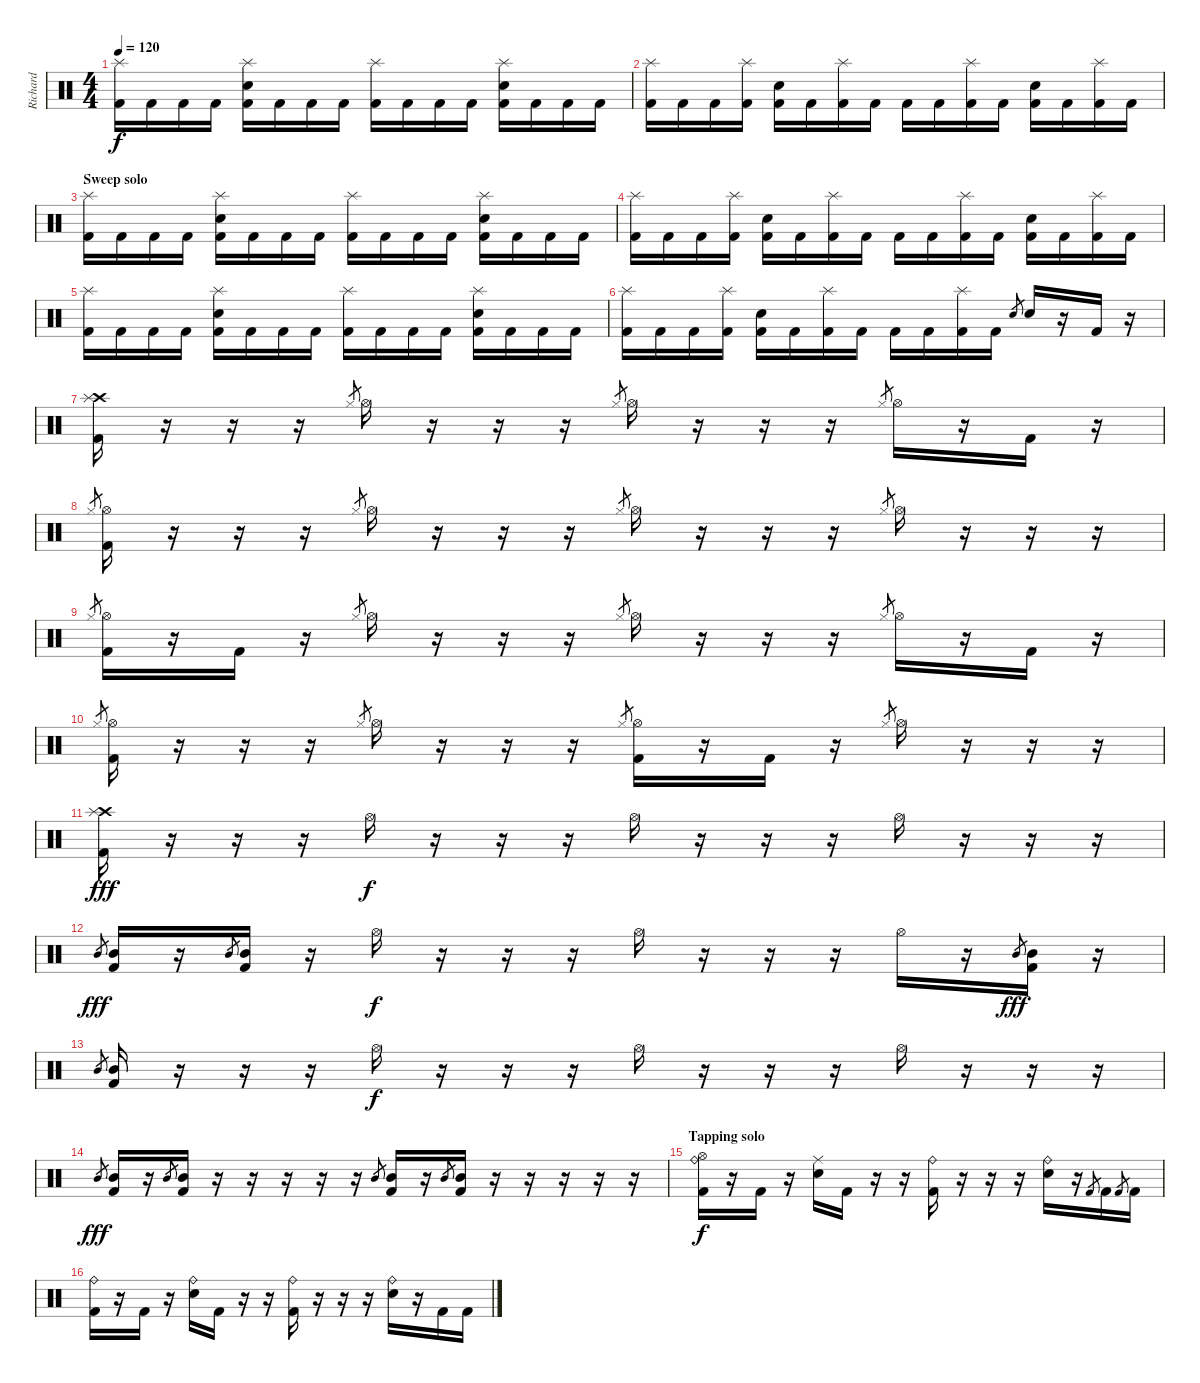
\track ("Richard " "Richard ") {instrument percussion}
\staff {score}
\articulation defaults
\ts (4 4)
\tempo 120
\clef neutral
\ks c
("Splash (hit)" "Kick (hit) 2").16{dy f} "Kick (hit) 2".16 "Kick (hit) 2".16 "Kick (hit) 2".16 ("Splash (hit)" "Snare (hit) 2" "Kick (hit) 2").16 "Kick (hit) 2".16 "Kick (hit) 2".16 "Kick (hit) 2".16 ("Splash (hit)" "Kick (hit) 2").16 "Kick (hit) 2".16 "Kick (hit) 2".16 "Kick (hit) 2".16 ("Splash (hit)" "Snare (hit) 2" "Kick (hit) 2").16 "Kick (hit) 2".16 "Kick (hit) 2".16 "Kick (hit) 2".16 |
("Splash (hit)" "Kick (hit) 2").16 "Kick (hit) 2".16 "Kick (hit) 2".16 ("Splash (hit)" "Kick (hit) 2").16 ("Snare (hit) 2" "Kick (hit) 2").16 "Kick (hit) 2".16 ("Splash (hit)" "Kick (hit) 2").16 "Kick (hit) 2".16 "Kick (hit) 2".16 "Kick (hit) 2".16 ("Splash (hit)" "Kick (hit) 2").16 "Kick (hit) 2".16 ("Snare (hit) 2" "Kick (hit) 2").16 "Kick (hit) 2".16 ("Splash (hit)" "Kick (hit) 2").16 "Kick (hit) 2".16 |
\section ("" "Sweep solo")
("Splash (hit)" "Kick (hit) 2").16 "Kick (hit) 2".16 "Kick (hit) 2".16 "Kick (hit) 2".16 ("Splash (hit)" "Snare (hit) 2" "Kick (hit) 2").16 "Kick (hit) 2".16 "Kick (hit) 2".16 "Kick (hit) 2".16 ("Splash (hit)" "Kick (hit) 2").16 "Kick (hit) 2".16 "Kick (hit) 2".16 "Kick (hit) 2".16 ("Splash (hit)" "Snare (hit) 2" "Kick (hit) 2").16 "Kick (hit) 2".16 "Kick (hit) 2".16 "Kick (hit) 2".16 |
("Splash (hit)" "Kick (hit) 2").16 "Kick (hit) 2".16 "Kick (hit) 2".16 ("Splash (hit)" "Kick (hit) 2").16 ("Snare (hit) 2" "Kick (hit) 2").16 "Kick (hit) 2".16 ("Splash (hit)" "Kick (hit) 2").16 "Kick (hit) 2".16 "Kick (hit) 2".16 "Kick (hit) 2".16 ("Splash (hit)" "Kick (hit) 2").16 "Kick (hit) 2".16 ("Snare (hit) 2" "Kick (hit) 2").16 "Kick (hit) 2".16 ("Splash (hit)" "Kick (hit) 2").16 "Kick (hit) 2".16 |
("Splash (hit)" "Kick (hit) 2").16 "Kick (hit) 2".16 "Kick (hit) 2".16 "Kick (hit) 2".16 ("Splash (hit)" "Snare (hit) 2" "Kick (hit) 2").16 "Kick (hit) 2".16 "Kick (hit) 2".16 "Kick (hit) 2".16 ("Splash (hit)" "Kick (hit) 2").16 "Kick (hit) 2".16 "Kick (hit) 2".16 "Kick (hit) 2".16 ("Splash (hit)" "Snare (hit) 2" "Kick (hit) 2").16 "Kick (hit) 2".16 "Kick (hit) 2".16 "Kick (hit) 2".16 |
("Splash (hit)" "Kick (hit) 2").16 "Kick (hit) 2".16 "Kick (hit) 2".16 ("Splash (hit)" "Kick (hit) 2").16 ("Snare (hit) 2" "Kick (hit) 2").16 "Kick (hit) 2".16 ("Splash (hit)" "Kick (hit) 2").16 "Kick (hit) 2".16 "Kick (hit) 2".16 "Kick (hit) 2".16 ("Splash (hit)" "Kick (hit) 2").16 "Kick (hit) 2".16 "Snare (hit) 2".8{gr} "Snare (hit) 2".16 r.16 "Kick (hit) 2".16 r.16 |
("Crash high (hit)" "Splash (hit)" "Kick (hit) 2").16 r.16 r.16 r.16 "Hi-Hat (closed)".8{gr} "Hi-Hat (open)".16 r.16 r.16 r.16 "Hi-Hat (closed)".8{gr} "Hi-Hat (open)".16 r.16 r.16 r.16 "Hi-Hat (closed)".8{gr} "Hi-Hat (open)".16 r.16 "Kick (hit) 2".16 r.16 |
"Hi-Hat (closed)".8{gr} ("Hi-Hat (open)" "Kick (hit) 2").16 r.16 r.16 r.16 "Hi-Hat (closed)".8{gr} "Hi-Hat (open)".16 r.16 r.16 r.16 "Hi-Hat (closed)".8{gr} "Hi-Hat (open)".16 r.16 r.16 r.16 "Hi-Hat (closed)".8{gr} "Hi-Hat (open)".16 r.16 r.16 r.16 |
"Hi-Hat (closed)".8{gr} ("Hi-Hat (open)" "Kick (hit) 2").16 r.16 "Kick (hit) 2".16 r.16 "Hi-Hat (closed)".8{gr} "Hi-Hat (open)".16 r.16 r.16 r.16 "Hi-Hat (closed)".8{gr} "Hi-Hat (open)".16 r.16 r.16 r.16 "Hi-Hat (closed)".8{gr} "Hi-Hat (open)".16 r.16 "Kick (hit) 2".16 r.16 |
"Hi-Hat (closed)".8{gr} ("Hi-Hat (open)" "Kick (hit) 2").16 r.16 r.16 r.16 "Hi-Hat (closed)".8{gr} "Hi-Hat (open)".16 r.16 r.16 r.16 "Hi-Hat (closed)".8{gr} ("Hi-Hat (open)" "Kick (hit) 2").16 r.16 "Kick (hit) 2".16 r.16 "Hi-Hat (closed)".8{gr} "Hi-Hat (open)".16 r.16 r.16 r.16 |
("Crash high (hit)" "Splash (hit)" "Kick (hit) 2").16{dy fff} r.16 r.16 r.16 "Hi-Hat (open)".16{dy f} r.16 r.16 r.16 "Hi-Hat (open)".16 r.16 r.16 r.16 "Hi-Hat (open)".16 r.16 r.16 r.16 |
"Mid Tom (hit)".8{gr dy fff} ("Kick (hit) 2" "Mid Tom (hit)").16 r.16 "Mid Tom (hit)".8{gr} ("Kick (hit) 2" "Mid Tom (hit)").16 r.16 "Hi-Hat (open)".16{dy f} r.16 r.16 r.16 "Hi-Hat (open)".16 r.16 r.16 r.16 "Hi-Hat (open)".16 r.16 "Mid Tom (hit)".8{gr dy fff} ("Kick (hit) 2" "Mid Tom (hit)").16 r.16 |
"Mid Tom (hit)".8{gr} ("Kick (hit) 2" "Mid Tom (hit)").16 r.16 r.16 r.16 "Hi-Hat (open)".16{dy f} r.16 r.16 r.16 "Hi-Hat (open)".16 r.16 r.16 r.16 "Hi-Hat (open)".16 r.16 r.16 r.16 |
"Mid Tom (hit)".8{gr dy fff} ("Kick (hit) 2" "Mid Tom (hit)").16 r.16 "Mid Tom (hit)".8{gr} ("Kick (hit) 2" "Mid Tom (hit)").16 r.16 r.16 r.16 r.16 r.16 "Mid Tom (hit)".8{gr} ("Kick (hit) 2" "Mid Tom (hit)").16 r.16 "Mid Tom (hit)".8{gr} ("Kick (hit) 2" "Mid Tom (hit)").16 r.16 r.16 r.16 r.16 r.16 |
\section ("" "Tapping solo")
("Hi-Hat (open)" "Ride (bell)" "Kick (hit) 2").16{dy f} r.16 "Kick (hit) 2".16 r.16 ("Ride (middle)" "Snare (hit) 2").16 "Kick (hit) 2".16 r.16 r.16 ("Ride (bell)" "Kick (hit) 2").16 r.16 r.16 r.16 ("Ride (bell)" "Snare (hit) 2").16 r.16 "Kick (hit) 2".8{gr} "Kick (hit) 2".16 "Kick (hit) 2".8{gr} "Kick (hit) 2".16 |
("Ride (bell)" "Kick (hit) 2").16 r.16 "Kick (hit) 2".16 r.16 ("Ride (bell)" "Snare (hit) 2").16 "Kick (hit) 2".16 r.16 r.16 ("Ride (bell)" "Kick (hit) 2").16 r.16 r.16 r.16 ("Ride (bell)" "Snare (hit) 2").16 r.16 "Kick (hit) 2".16 "Kick (hit) 2".16
